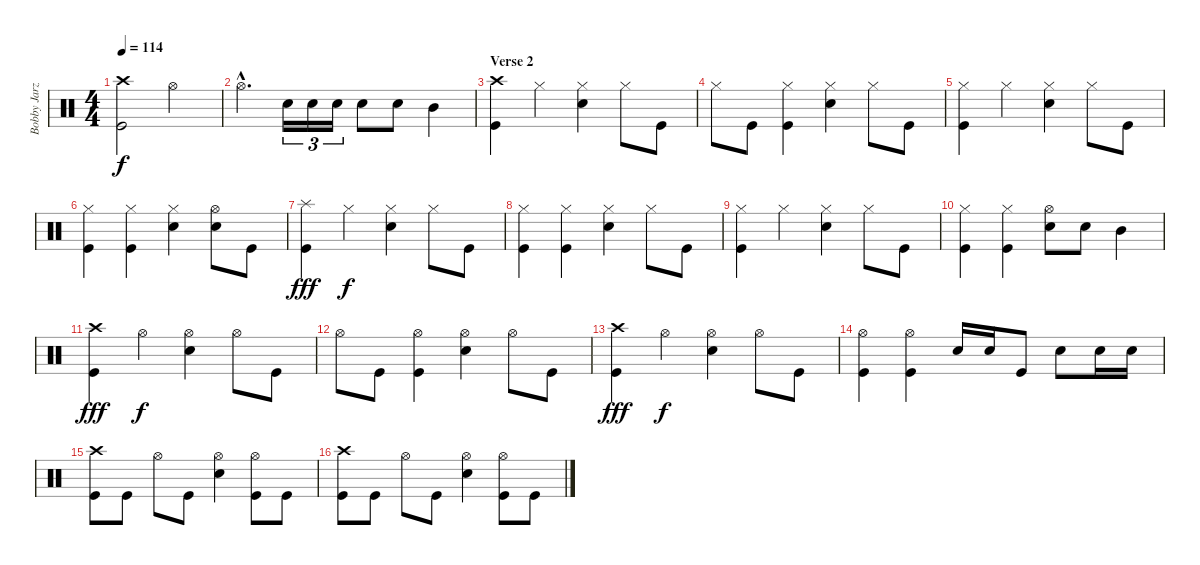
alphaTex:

\track ("Bobby Jarzombek" "Bobby Jarz") {instrument percussion}
\staff {score}
\articulation defaults
\ts (4 4)
\tempo 114
\clef neutral
\ks c
("Crash high (hit)" "Kick (hit)").2{dy f} "Hi-Hat (open)".2 |
"Hi-Hat (open)"{hac}.4{d} "Electric Snare (hit)".16{tu (3 2)} "Electric Snare (hit)".16{tu (3 2)} "Electric Snare (hit)".16{tu (3 2)} "Electric Snare (hit)".8 "Electric Snare (hit)".8 "Mid Tom (hit)".4 |
\section ("" "Verse 2")
("Crash high (hit)" "Kick (hit)").4 "Hi-Hat (closed)".4 ("Hi-Hat (closed)" "Electric Snare (hit)").4 "Hi-Hat (closed)".8 "Kick (hit)".8 |
"Hi-Hat (closed)".8 "Kick (hit)".8 ("Hi-Hat (closed)" "Kick (hit)").4 ("Hi-Hat (closed)" "Electric Snare (hit)").4 "Hi-Hat (closed)".8 "Kick (hit)".8 |
("Hi-Hat (closed)" "Kick (hit)").4 "Hi-Hat (closed)".4 ("Hi-Hat (closed)" "Electric Snare (hit)").4 "Hi-Hat (closed)".8 "Kick (hit)".8 |
("Hi-Hat (closed)" "Kick (hit)").4 ("Hi-Hat (closed)" "Kick (hit)").4 ("Hi-Hat (closed)" "Electric Snare (hit)").4 ("Hi-Hat (open)" "Electric Snare (hit)").8 "Kick (hit)".8 |
("Splash (hit)" "Kick (hit)").4{dy fff} "Hi-Hat (closed)".4{dy f} ("Hi-Hat (closed)" "Electric Snare (hit)").4 "Hi-Hat (closed)".8 "Kick (hit)".8 |
("Hi-Hat (closed)" "Kick (hit)").4 ("Hi-Hat (closed)" "Kick (hit)").4 ("Hi-Hat (closed)" "Electric Snare (hit)").4 "Hi-Hat (closed)".8 "Kick (hit)".8 |
("Hi-Hat (closed)" "Kick (hit)").4 "Hi-Hat (closed)".4 ("Hi-Hat (closed)" "Electric Snare (hit)").4 "Hi-Hat (closed)".8 "Kick (hit)".8 |
("Hi-Hat (closed)" "Kick (hit)").4 ("Hi-Hat (closed)" "Kick (hit)").4 ("Hi-Hat (open)" "Electric Snare (hit)").8 "Electric Snare (hit)".8 "Mid Tom (hit)".4 |
("Crash high (hit)" "Kick (hit)").4{dy fff} "Hi-Hat (open)".4{dy f} ("Hi-Hat (open)" "Electric Snare (hit)").4 "Hi-Hat (open)".8 "Kick (hit)".8 |
"Hi-Hat (open)".8 "Kick (hit)".8 ("Hi-Hat (open)" "Kick (hit)").4 ("Hi-Hat (open)" "Electric Snare (hit)").4 "Hi-Hat (open)".8 "Kick (hit)".8 |
("Crash high (hit)" "Kick (hit)").4{dy fff} "Hi-Hat (open)".4{dy f} ("Hi-Hat (open)" "Electric Snare (hit)").4 "Hi-Hat (open)".8 "Kick (hit)".8 |
("Hi-Hat (open)" "Kick (hit)").4 ("Hi-Hat (open)" "Kick (hit)").4 "Electric Snare (hit)".16 "Electric Snare (hit)".16 "Kick (hit)".8 "Electric Snare (hit)".8 "Electric Snare (hit)".16 "Electric Snare (hit)".16 |
("Crash high (hit)" "Kick (hit)").8 "Kick (hit)".8 "Hi-Hat (open)".8 "Kick (hit)".8 ("Hi-Hat (open)" "Electric Snare (hit)").4 ("Hi-Hat (open)" "Kick (hit)").8 "Kick (hit)".8 |
("Crash high (hit)" "Kick (hit)").8 "Kick (hit)".8 "Hi-Hat (open)".8 "Kick (hit)".8 ("Hi-Hat (open)" "Electric Snare (hit)").4 ("Hi-Hat (open)" "Kick (hit)").8 "Kick (hit)".8
